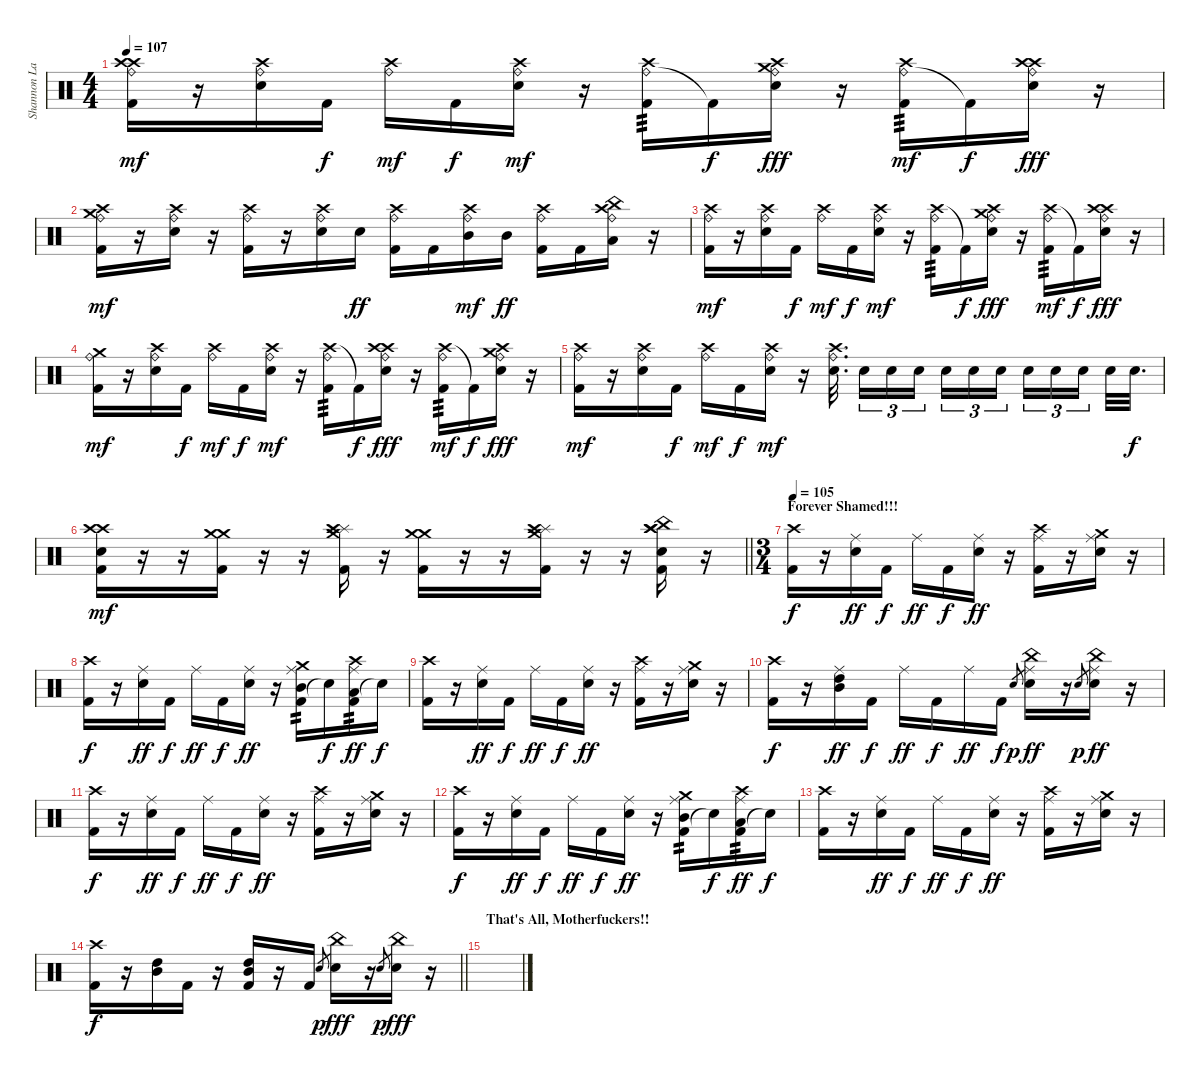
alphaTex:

\track ("Shannon Larkin" "Shannon La") {instrument percussion}
\staff {score}
\articulation defaults
\ts (4 4)
\tempo 107
\clef neutral
\ks c
("Crash high (hit)" "Ride (bell)" "Crash high (hit)" "Kick (hit) 2").16{dy mf} r.16 ("Ride (bell)" "Electric Snare (hit)" "Crash high (hit)").16 "Kick (hit) 2".16{dy f} ("Ride (bell)" "Crash high (hit)").16{dy mf} "Kick (hit) 2".16{dy f} ("Ride (bell)" "Electric Snare (hit)" "Crash high (hit)").16{dy mf} r.16 ("Ride (bell)" "Crash high (hit)" "Kick (hit) 2").16{tp 3} "Kick (hit) 2"{t}.16{dy f} ("Ride (bell)" "Electric Snare (hit)" "Crash high (hit)" "Crash medium (hit)").16{dy fff} r.16 ("Ride (bell)" "Crash high (hit)" "Kick (hit) 2").16{tp 3 dy mf} "Kick (hit) 2"{t}.16{dy f} ("Ride (bell)" "Electric Snare (hit)" "Crash high (hit)" "Crash high (hit)").16{dy fff} r.16 |
("Crash medium (hit)" "Ride (bell)" "Crash high (hit)" "Kick (hit) 2").16{dy mf} r.16 ("Ride (bell)" "Electric Snare (hit)" "Crash high (hit)").16 r.16 ("Ride (bell)" "Crash high (hit)" "Kick (hit) 2").16 r.16 ("Ride (bell)" "Electric Snare (hit)" "Crash high (hit)").16 "Electric Snare (hit)".16{dy ff} ("Ride (bell)" "Crash high (hit)" "Kick (hit) 2").16 "Kick (hit) 2".16 ("Ride (bell)" "Mid Tom (hit)" "Crash high (hit)").16{dy mf} "Mid Tom (hit)".16{dy ff} ("Ride (bell)" "Crash high (hit)" "Kick (hit) 2").16 "Kick (hit) 2".16 ("Ride (bell)" "Low Tom (hit)" "China (hit)" "Crash high (hit)").16 r.16 |
("Crash high (hit)" "Ride (bell)" "Kick (hit) 2").16{dy mf} r.16 ("Crash high (hit)" "Ride (bell)" "Electric Snare (hit)").16 "Kick (hit) 2".16{dy f} ("Crash high (hit)" "Ride (bell)").16{dy mf} "Kick (hit) 2".16{dy f} ("Crash high (hit)" "Ride (bell)" "Electric Snare (hit)").16{dy mf} r.16 ("Crash high (hit)" "Ride (bell)" "Kick (hit) 2").16{tp 3} "Kick (hit) 2"{t}.16{dy f} ("Crash high (hit)" "Ride (bell)" "Electric Snare (hit)" "Crash medium (hit)").16{dy fff} r.16 ("Crash high (hit)" "Ride (bell)" "Kick (hit) 2").16{tp 3 dy mf} "Kick (hit) 2"{t}.16{dy f} ("Crash high (hit)" "Ride (bell)" "Electric Snare (hit)" "Crash high (hit)").16{dy fff} r.16 |
("Crash medium (hit)" "Ride (bell)" "Kick (hit) 2").16{dy mf} r.16 ("Crash high (hit)" "Ride (bell)" "Electric Snare (hit)").16 "Kick (hit) 2".16{dy f} ("Crash high (hit)" "Ride (bell)").16{dy mf} "Kick (hit) 2".16{dy f} ("Crash high (hit)" "Ride (bell)" "Electric Snare (hit)").16{dy mf} r.16 ("Crash high (hit)" "Ride (bell)" "Kick (hit) 2").16{tp 3} "Kick (hit) 2"{t}.16{dy f} ("Crash high (hit)" "Ride (bell)" "Electric Snare (hit)" "Crash high (hit)").16{dy fff} r.16 ("Crash high (hit)" "Ride (bell)" "Kick (hit) 2").16{tp 3 dy mf} "Kick (hit) 2"{t}.16{dy f} ("Crash high (hit)" "Ride (bell)" "Electric Snare (hit)" "Crash medium (hit)").16{dy fff} r.16 |
("Crash high (hit)" "Ride (bell)" "Kick (hit) 2").16{dy mf} r.16 ("Crash high (hit)" "Ride (bell)" "Electric Snare (hit)").16 "Kick (hit) 2".16{dy f} ("Crash high (hit)" "Ride (bell)").16{dy mf} "Kick (hit) 2".16{dy f} ("Crash high (hit)" "Ride (bell)" "Electric Snare (hit)").16{dy mf} r.16 ("Crash high (hit)" "Ride (bell)" "Electric Snare (hit)").32{d beam splitsecondary} "Electric Snare (hit)".16{tu (3 2)} "Electric Snare (hit)".16{tu (3 2)} "Electric Snare (hit)".16{tu (3 2) beam splitsecondary} "Electric Snare (hit)".16{tu (3 2)} "Electric Snare (hit)".16{tu (3 2)} "Electric Snare (hit)".16{tu (3 2) beam splitsecondary} "Electric Snare (hit)".16{tu (3 2)} "Electric Snare (hit)".16{tu (3 2)} "Electric Snare (hit)".16{tu (3 2) beam splitsecondary} "Electric Snare (hit)".32 "Electric Snare (hit)".32{d dy f} |
\barLineRight lightlight
("Kick (hit) 2" "Electric Snare (hit)" "Crash high (hit)" "Crash high (hit)").16{dy mf} r.16 r.16 ("Kick (hit) 2" "Crash medium (hit)" "Crash medium (hit)").16 r.16 r.16 ("Kick (hit) 2" "Crash medium (hit)" "Splash (hit)" "Crash high (hit)").16 r.16 ("Kick (hit) 2" "Crash medium (hit)" "Crash medium (hit)").16 r.16 r.16 ("Kick (hit) 2" "Crash medium (hit)" "Splash (hit)" "Crash high (hit)").16 r.16 r.16 ("Kick (hit) 2" "Electric Snare (hit)" "China (hit)" "Crash high (hit)" "Crash high (hit)").16 r.16 |
\ts (3 4)
\section ("" "Forever Shamed!!!")
\tempo 105
("Kick (hit) 2" "Crash high (hit)").16{dy f} r.16 ("Electric Snare (hit)" "Ride (middle)").16{dy ff} "Kick (hit) 2".16{dy f} "Ride (middle)".16{dy ff} "Kick (hit) 2".16{dy f} ("Electric Snare (hit)" "Ride (middle)").16{dy ff} r.16 ("Kick (hit) 2" "Crash high (hit)" "Ride (middle)").16 r.16 ("Electric Snare (hit)" "Crash medium (hit)" "Ride (middle)").16 r.16 |
("Kick (hit) 2" "Crash high (hit)").16{dy f} r.16 ("Electric Snare (hit)" "Ride (middle)").16{dy ff} "Kick (hit) 2".16{dy f} "Ride (middle)".16{dy ff} "Kick (hit) 2".16{dy f} ("Electric Snare (hit)" "Ride (middle)").16{dy ff} r.16 ("Kick (hit) 2" "Mid Tom (hit)" "Crash medium (hit)" "Ride (middle)").16{tp 2} "Snare (hit)"{t}.16{dy f} ("Kick (hit) 2" "Low Tom (hit)" "Crash high (hit)" "Ride (middle)").16{tp 2 dy ff} "Snare (hit)"{t}.16{dy f} |
("Kick (hit) 2" "Crash high (hit)").16 r.16 ("Electric Snare (hit)" "Ride (middle)").16{dy ff} "Kick (hit) 2".16{dy f} "Ride (middle)".16{dy ff} "Kick (hit) 2".16{dy f} ("Electric Snare (hit)" "Ride (middle)").16{dy ff} r.16 ("Kick (hit) 2" "Crash high (hit)" "Ride (middle)").16 r.16 ("Electric Snare (hit)" "Crash medium (hit)" "Ride (middle)").16 r.16 |
("Kick (hit) 2" "Crash high (hit)").16{dy f} r.16 ("High Tom (hit)" "Mid Tom (hit)" "Ride (middle)").16{dy ff} "Kick (hit) 2".16{dy f} "Ride (middle)".16{dy ff} "Kick (hit) 2".16{dy f} "Ride (middle)".16{dy ff} "Kick (hit) 2".16{dy f} "Electric Snare (hit)".8{gr dy p} ("Electric Snare (hit)" "China (hit)" "Ride (middle)").16{dy ff} r.16 "Electric Snare (hit)".8{gr dy p} ("Electric Snare (hit)" "China (hit)" "Ride (middle)").16{dy ff} r.16 |
("Kick (hit) 2" "Crash high (hit)").16{dy f} r.16 ("Electric Snare (hit)" "Ride (middle)").16{dy ff} "Kick (hit) 2".16{dy f} "Ride (middle)".16{dy ff} "Kick (hit) 2".16{dy f} ("Electric Snare (hit)" "Ride (middle)").16{dy ff} r.16 ("Kick (hit) 2" "Crash high (hit)" "Ride (middle)").16 r.16 ("Electric Snare (hit)" "Crash medium (hit)" "Ride (middle)").16 r.16 |
("Kick (hit) 2" "Crash high (hit)").16{dy f} r.16 ("Electric Snare (hit)" "Ride (middle)").16{dy ff} "Kick (hit) 2".16{dy f} "Ride (middle)".16{dy ff} "Kick (hit) 2".16{dy f} ("Electric Snare (hit)" "Ride (middle)").16{dy ff} r.16 ("Kick (hit) 2" "Mid Tom (hit)" "Crash medium (hit)" "Ride (middle)").16{tp 2} "Snare (hit)"{t}.16{dy f} ("Kick (hit) 2" "Low Tom (hit)" "Crash high (hit)" "Ride (middle)").16{tp 2 dy ff} "Snare (hit)"{t}.16{dy f} |
("Kick (hit) 2" "Crash high (hit)").16 r.16 ("Electric Snare (hit)" "Ride (middle)").16{dy ff} "Kick (hit) 2".16{dy f} "Ride (middle)".16{dy ff} "Kick (hit) 2".16{dy f} ("Electric Snare (hit)" "Ride (middle)").16{dy ff} r.16 ("Kick (hit) 2" "Crash high (hit)" "Ride (middle)").16 r.16 ("Electric Snare (hit)" "Crash medium (hit)" "Ride (middle)").16 r.16 |
\barLineRight lightlight
("Kick (hit) 2" "Crash high (hit)").16{dy f} r.16 ("High Tom (hit)" "Mid Tom (hit)").16 "Kick (hit) 2".16 r.16 ("Kick (hit) 2" "Mid Tom (hit)" "High Tom (hit)").16 r.16 "Kick (hit) 2".16 "Electric Snare (hit)".8{gr dy p} ("Electric Snare (hit)" "China (hit)").16{dy fff} r.16 "Electric Snare (hit)".8{gr dy p} ("Electric Snare (hit)" "China (hit)").16{dy fff} r.16 |
\section ("" "That's All, Motherfuckers!!")
